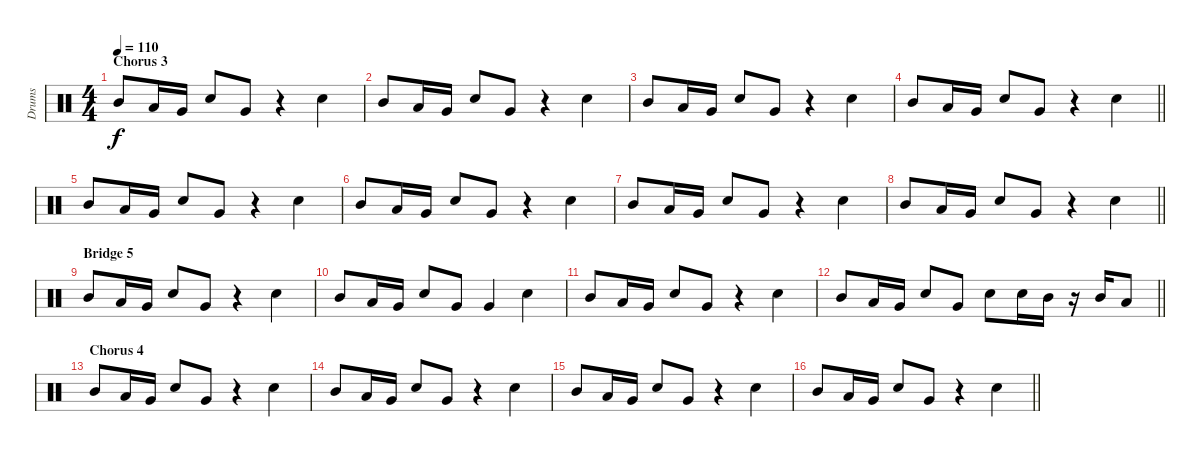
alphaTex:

\track ("Drums" "Drums") {instrument percussion}
\staff {score}
\articulation defaults
\ts (4 4)
\section ("" "Chorus 3")
\tempo 110
\clef neutral
\ks c "Mid Tom (hit)".8{dy f} "Low Tom (hit)".16 "Very Low Tom (hit)".16 "Snare (hit) 2".8 "Very Low Tom (hit)".8
r.4 "Snare (hit) 2".4 |
"Mid Tom (hit)".8 "Low Tom (hit)".16 "Very Low Tom (hit)".16 "Snare (hit) 2".8 "Very Low Tom (hit)".8 r.4 "Snare (hit) 2".4 |
"Mid Tom (hit)".8 "Low Tom (hit)".16 "Very Low Tom (hit)".16 "Snare (hit) 2".8 "Very Low Tom (hit)".8 r.4 "Snare (hit) 2".4 |
\barLineRight lightlight "Mid Tom (hit)".8 "Low Tom (hit)".16 "Very Low Tom (hit)".16 "Snare (hit) 2".8 "Very Low Tom (hit)".8
r.4 "Snare (hit) 2".4 |
"Mid Tom (hit)".8 "Low Tom (hit)".16 "Very Low Tom (hit)".16 "Snare (hit) 2".8 "Very Low Tom (hit)".8 r.4 "Snare (hit) 2".4 |
"Mid Tom (hit)".8 "Low Tom (hit)".16 "Very Low Tom (hit)".16 "Snare (hit) 2".8 "Very Low Tom (hit)".8 r.4 "Snare (hit) 2".4 |
"Mid Tom (hit)".8 "Low Tom (hit)".16 "Very Low Tom (hit)".16 "Snare (hit) 2".8 "Very Low Tom (hit)".8 r.4 "Snare (hit) 2".4 |
\barLineRight lightlight "Mid Tom (hit)".8 "Low Tom (hit)".16 "Very Low Tom (hit)".16 "Snare (hit) 2".8 "Very Low Tom (hit)".8
r.4 "Snare (hit) 2".4 |
\section ("" "Bridge 5")
"Mid Tom (hit)".8 "Low Tom (hit)".16 "Very Low Tom (hit)".16 "Snare (hit) 2".8 "Very Low Tom (hit)".8 r.4 "Snare (hit) 2".4 |
"Mid Tom (hit)".8 "Low Tom (hit)".16 "Very Low Tom (hit)".16 "Snare (hit) 2".8 "Very Low Tom (hit)".8 "Very Low Tom (hit)".4 "Snare (hit) 2".4 |
"Mid Tom (hit)".8 "Low Tom (hit)".16 "Very Low Tom (hit)".16 "Snare (hit) 2".8 "Very Low Tom (hit)".8 r.4 "Snare (hit) 2".4 |
\barLineRight lightlight "Mid Tom (hit)".8 "Low Tom (hit)".16 "Very Low Tom (hit)".16 "Snare (hit) 2".8 "Very Low Tom (hit)".8 "Snare (hit) 2".8 "Snare (hit) 2".16 "Mid Tom (hit)".16
r.16 "Mid Tom (hit)".16 "Low Tom (hit)".8 |
\section ("" "Chorus 4")
"Mid Tom (hit)".8 "Low Tom (hit)".16 "Very Low Tom (hit)".16 "Snare (hit) 2".8 "Very Low Tom (hit)".8 r.4 "Snare (hit) 2".4 |
"Mid Tom (hit)".8 "Low Tom (hit)".16 "Very Low Tom (hit)".16 "Snare (hit) 2".8 "Very Low Tom (hit)".8 r.4 "Snare (hit) 2".4 |
"Mid Tom (hit)".8 "Low Tom (hit)".16 "Very Low Tom (hit)".16 "Snare (hit) 2".8 "Very Low Tom (hit)".8 r.4 "Snare (hit) 2".4 |
\barLineRight lightlight "Mid Tom (hit)".8 "Low Tom (hit)".16 "Very Low Tom (hit)".16 "Snare (hit) 2".8 "Very Low Tom (hit)".8
r.4 "Snare (hit) 2".4
